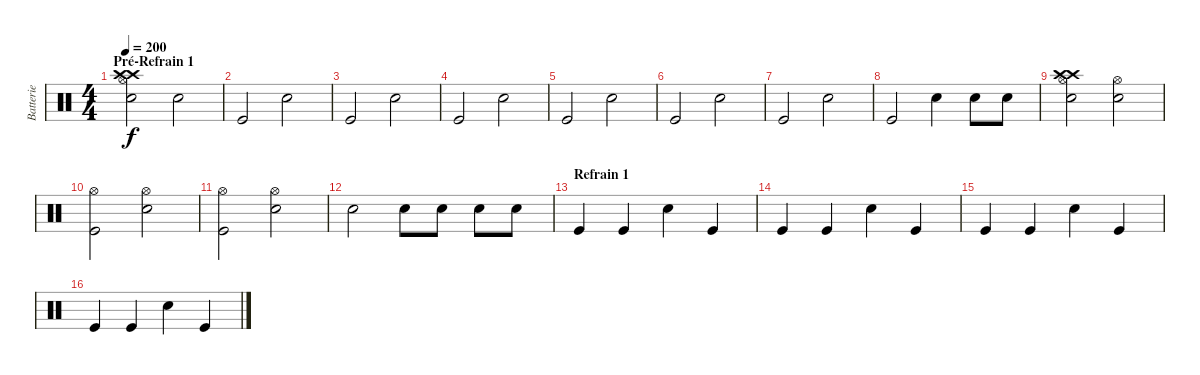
\track ("Batterie" "Batterie") {instrument percussion}
\staff {score}
\articulation defaults
\ts (4 4)
\section ("" "Pré-Refrain 1")
\tempo 200
\clef neutral
\ks c
("Electric Snare (hit)" "Crash high (hit)" "Crash high (hit)" "Hi-Hat (open)").2{dy f} "Electric Snare (hit)".2 |
"Kick (hit)".2 "Electric Snare (hit)".2 |
"Kick (hit)".2 "Electric Snare (hit)".2 |
"Kick (hit)".2 "Electric Snare (hit)".2 |
"Kick (hit)".2 "Electric Snare (hit)".2 |
"Kick (hit)".2 "Electric Snare (hit)".2 |
"Kick (hit)".2 "Electric Snare (hit)".2 |
"Kick (hit)".2 "Electric Snare (hit)".4 "Electric Snare (hit)".8 "Electric Snare (hit)".8 |
("Electric Snare (hit)" "Crash high (hit)" "Crash high (hit)" "Hi-Hat (open)").2 ("Electric Snare (hit)" "Hi-Hat (open)").2 |
("Kick (hit)" "Hi-Hat (open)").2 ("Electric Snare (hit)" "Hi-Hat (open)").2 |
("Kick (hit)" "Hi-Hat (open)").2 ("Electric Snare (hit)" "Hi-Hat (open)").2 |
"Electric Snare (hit)".2 "Electric Snare (hit)".8 "Electric Snare (hit)".8 "Electric Snare (hit)".8 "Electric Snare (hit)".8 |
\section ("" "Refrain 1")
"Kick (hit)".4 "Kick (hit)".4 "Electric Snare (hit)".4 "Kick (hit)".4 |
"Kick (hit)".4 "Kick (hit)".4 "Electric Snare (hit)".4 "Kick (hit)".4 |
"Kick (hit)".4 "Kick (hit)".4 "Electric Snare (hit)".4 "Kick (hit)".4 |
"Kick (hit)".4 "Kick (hit)".4 "Electric Snare (hit)".4 "Kick (hit)".4
